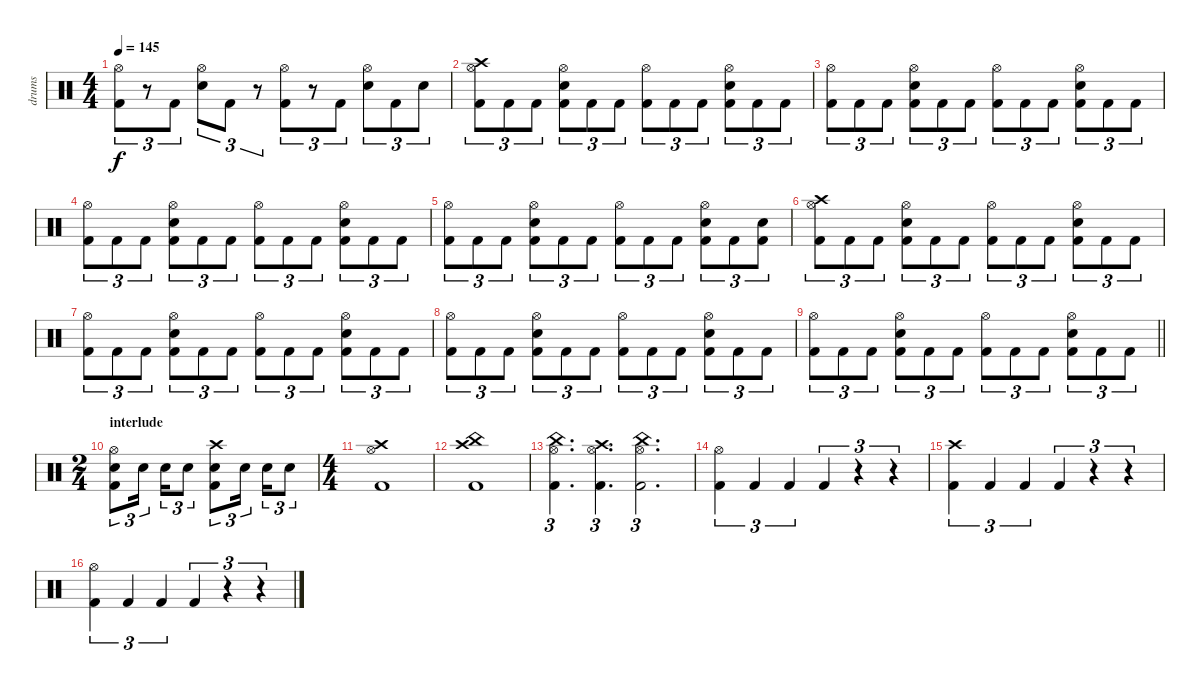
\track ("drums" "drums") {instrument percussion}
\staff {score}
\articulation defaults
\ts (4 4)
\tempo 145
\clef neutral
\ks c
("Hi-Hat (open)" "Kick (hit) 2").8{tu (3 2) dy f} r.8{tu (3 2)} "Kick (hit) 2".8{tu (3 2)} ("Snare (hit) 2" "Hi-Hat (open)").8{tu (3 2)} "Kick (hit) 2".8{tu (3 2)} r.8{tu (3 2)} ("Hi-Hat (open)" "Kick (hit) 2").8{tu (3 2)} r.8{tu (3 2)} "Kick (hit) 2".8{tu (3 2)} ("Snare (hit) 2" "Hi-Hat (open)").8{tu (3 2)} "Kick (hit) 2".8{tu (3 2)} "Snare (hit) 2".8{tu (3 2)} |
("Crash high (hit)" "Hi-Hat (open)" "Kick (hit) 2").8{tu (3 2)} "Kick (hit) 2".8{tu (3 2)} "Kick (hit) 2".8{tu (3 2)} ("Snare (hit) 2" "Hi-Hat (open)" "Kick (hit) 2").8{tu (3 2)} "Kick (hit) 2".8{tu (3 2)} "Kick (hit) 2".8{tu (3 2)} ("Hi-Hat (open)" "Kick (hit) 2").8{tu (3 2)} "Kick (hit) 2".8{tu (3 2)} "Kick (hit) 2".8{tu (3 2)} ("Snare (hit) 2" "Hi-Hat (open)" "Kick (hit) 2").8{tu (3 2)} "Kick (hit) 2".8{tu (3 2)} "Kick (hit) 2".8{tu (3 2)} |
("Hi-Hat (open)" "Kick (hit) 2").8{tu (3 2)} "Kick (hit) 2".8{tu (3 2)} "Kick (hit) 2".8{tu (3 2)} ("Snare (hit) 2" "Hi-Hat (open)" "Kick (hit) 2").8{tu (3 2)} "Kick (hit) 2".8{tu (3 2)} "Kick (hit) 2".8{tu (3 2)} ("Hi-Hat (open)" "Kick (hit) 2").8{tu (3 2)} "Kick (hit) 2".8{tu (3 2)} "Kick (hit) 2".8{tu (3 2)} ("Snare (hit) 2" "Hi-Hat (open)" "Kick (hit) 2").8{tu (3 2)} "Kick (hit) 2".8{tu (3 2)} "Kick (hit) 2".8{tu (3 2)} |
("Hi-Hat (open)" "Kick (hit) 2").8{tu (3 2)} "Kick (hit) 2".8{tu (3 2)} "Kick (hit) 2".8{tu (3 2)} ("Snare (hit) 2" "Hi-Hat (open)" "Kick (hit) 2").8{tu (3 2)} "Kick (hit) 2".8{tu (3 2)} "Kick (hit) 2".8{tu (3 2)} ("Hi-Hat (open)" "Kick (hit) 2").8{tu (3 2)} "Kick (hit) 2".8{tu (3 2)} "Kick (hit) 2".8{tu (3 2)} ("Snare (hit) 2" "Hi-Hat (open)" "Kick (hit) 2").8{tu (3 2)} "Kick (hit) 2".8{tu (3 2)} "Kick (hit) 2".8{tu (3 2)} |
("Hi-Hat (open)" "Kick (hit) 2").8{tu (3 2)} "Kick (hit) 2".8{tu (3 2)} "Kick (hit) 2".8{tu (3 2)} ("Snare (hit) 2" "Hi-Hat (open)" "Kick (hit) 2").8{tu (3 2)} "Kick (hit) 2".8{tu (3 2)} "Kick (hit) 2".8{tu (3 2)} ("Hi-Hat (open)" "Kick (hit) 2").8{tu (3 2)} "Kick (hit) 2".8{tu (3 2)} "Kick (hit) 2".8{tu (3 2)} ("Snare (hit) 2" "Hi-Hat (open)" "Kick (hit) 2").8{tu (3 2)} "Kick (hit) 2".8{tu (3 2)} ("Snare (hit) 2" "Kick (hit) 2").8{tu (3 2)} |
("Crash high (hit)" "Hi-Hat (open)" "Kick (hit) 2").8{tu (3 2)} "Kick (hit) 2".8{tu (3 2)} "Kick (hit) 2".8{tu (3 2)} ("Snare (hit) 2" "Hi-Hat (open)" "Kick (hit) 2").8{tu (3 2)} "Kick (hit) 2".8{tu (3 2)} "Kick (hit) 2".8{tu (3 2)} ("Hi-Hat (open)" "Kick (hit) 2").8{tu (3 2)} "Kick (hit) 2".8{tu (3 2)} "Kick (hit) 2".8{tu (3 2)} ("Snare (hit) 2" "Hi-Hat (open)" "Kick (hit) 2").8{tu (3 2)} "Kick (hit) 2".8{tu (3 2)} "Kick (hit) 2".8{tu (3 2)} |
("Hi-Hat (open)" "Kick (hit) 2").8{tu (3 2)} "Kick (hit) 2".8{tu (3 2)} "Kick (hit) 2".8{tu (3 2)} ("Snare (hit) 2" "Hi-Hat (open)" "Kick (hit) 2").8{tu (3 2)} "Kick (hit) 2".8{tu (3 2)} "Kick (hit) 2".8{tu (3 2)} ("Hi-Hat (open)" "Kick (hit) 2").8{tu (3 2)} "Kick (hit) 2".8{tu (3 2)} "Kick (hit) 2".8{tu (3 2)} ("Snare (hit) 2" "Hi-Hat (open)" "Kick (hit) 2").8{tu (3 2)} "Kick (hit) 2".8{tu (3 2)} "Kick (hit) 2".8{tu (3 2)} |
("Hi-Hat (open)" "Kick (hit) 2").8{tu (3 2)} "Kick (hit) 2".8{tu (3 2)} "Kick (hit) 2".8{tu (3 2)} ("Snare (hit) 2" "Hi-Hat (open)" "Kick (hit) 2").8{tu (3 2)} "Kick (hit) 2".8{tu (3 2)} "Kick (hit) 2".8{tu (3 2)} ("Hi-Hat (open)" "Kick (hit) 2").8{tu (3 2)} "Kick (hit) 2".8{tu (3 2)} "Kick (hit) 2".8{tu (3 2)} ("Snare (hit) 2" "Hi-Hat (open)" "Kick (hit) 2").8{tu (3 2)} "Kick (hit) 2".8{tu (3 2)} "Kick (hit) 2".8{tu (3 2)} |
\barLineRight lightlight
("Hi-Hat (open)" "Kick (hit) 2").8{tu (3 2)} "Kick (hit) 2".8{tu (3 2)} "Kick (hit) 2".8{tu (3 2)} ("Snare (hit) 2" "Hi-Hat (open)" "Kick (hit) 2").8{tu (3 2)} "Kick (hit) 2".8{tu (3 2)} "Kick (hit) 2".8{tu (3 2)} ("Hi-Hat (open)" "Kick (hit) 2").8{tu (3 2)} "Kick (hit) 2".8{tu (3 2)} "Kick (hit) 2".8{tu (3 2)} ("Snare (hit) 2" "Hi-Hat (open)" "Kick (hit) 2").8{tu (3 2)} "Kick (hit) 2".8{tu (3 2)} "Kick (hit) 2".8{tu (3 2)} |
\ts (2 4)
\section ("" "interlude")
("Hi-Hat (open)" "Snare (hit) 2" "Kick (hit) 2").8{tu (3 2)} "Snare (hit) 2".16{tu (3 2) beam splitsecondary} "Snare (hit) 2".16{tu (3 2)} "Snare (hit) 2".8{tu (3 2)} ("Crash high (hit)" "Snare (hit) 2" "Kick (hit) 2").8{tu (3 2)} "Snare (hit) 2".16{tu (3 2) beam splitsecondary} "Snare (hit) 2".16{tu (3 2)} "Snare (hit) 2".8{tu (3 2)} |
\ts (4 4)
("Crash high (hit)" "Hi-Hat (open)" "Kick (hit) 2").1 |
("China (hit)" "Crash high (hit)" "Kick (hit) 2").1 |
("China (hit)" "Hi-Hat (open)" "Kick (hit) 2").4{d tu (3 2)} ("Crash high (hit)" "Hi-Hat (open)" "Kick (hit) 2").4{d tu (3 2)} ("China (hit)" "Hi-Hat (open)" "Kick (hit) 2").2{d tu (3 2)} |
("Hi-Hat (open)" "Kick (hit) 2").4{tu (3 2)} "Kick (hit) 2".4{tu (3 2)} "Kick (hit) 2".4{tu (3 2)} "Kick (hit) 2".4{tu (3 2)} r.4{tu (3 2)} r.4{tu (3 2)} |
("Crash high (hit)" "Kick (hit) 2").4{tu (3 2)} "Kick (hit) 2".4{tu (3 2)} "Kick (hit) 2".4{tu (3 2)} "Kick (hit) 2".4{tu (3 2)} r.4{tu (3 2)} r.4{tu (3 2)} |
("Hi-Hat (open)" "Kick (hit) 2").4{tu (3 2)} "Kick (hit) 2".4{tu (3 2)} "Kick (hit) 2".4{tu (3 2)} "Kick (hit) 2".4{tu (3 2)} r.4{tu (3 2)} r.4{tu (3 2)}
